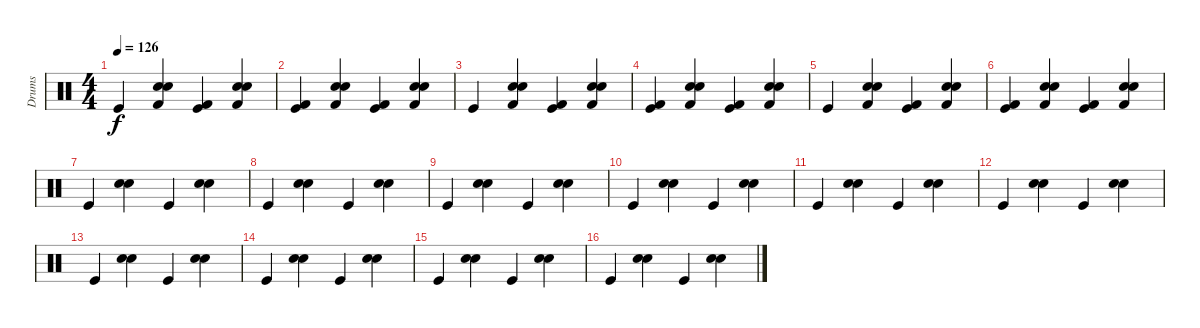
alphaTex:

\track ("Drums" "Drums") {instrument percussion}
\staff {score}
\articulation defaults
\ts (4 4)
\tempo 126
\clef neutral
\ks c "Kick (hit)".4{dy f}
("Snare (hit) 2" "Hand Clap (hit)" "Kick (hit) 2").4 ("Kick (hit)" "Kick (hit) 2").4 ("Snare (hit) 2" "Hand Clap (hit)" "Kick (hit) 2").4 |
("Kick (hit)" "Kick (hit) 2").4 ("Snare (hit) 2" "Hand Clap (hit)" "Kick (hit) 2").4 ("Kick (hit)" "Kick (hit) 2").4 ("Snare (hit) 2" "Hand Clap (hit)" "Kick (hit) 2").4 |
"Kick (hit)".4 ("Snare (hit) 2" "Hand Clap (hit)" "Kick (hit) 2").4 ("Kick (hit)" "Kick (hit) 2").4 ("Snare (hit) 2" "Hand Clap (hit)" "Kick (hit) 2").4 |
("Kick (hit)" "Kick (hit) 2").4 ("Snare (hit) 2" "Hand Clap (hit)" "Kick (hit) 2").4 ("Kick (hit)" "Kick (hit) 2").4 ("Snare (hit) 2" "Hand Clap (hit)" "Kick (hit) 2").4 |
"Kick (hit)".4 ("Snare (hit) 2" "Hand Clap (hit)" "Kick (hit) 2").4 ("Kick (hit)" "Kick (hit) 2").4 ("Snare (hit) 2" "Hand Clap (hit)" "Kick (hit) 2").4 |
("Kick (hit)" "Kick (hit) 2").4 ("Snare (hit) 2" "Hand Clap (hit)" "Kick (hit) 2").4 ("Kick (hit)" "Kick (hit) 2").4 ("Snare (hit) 2" "Hand Clap (hit)" "Kick (hit) 2").4 |
"Kick (hit)".4 ("Snare (hit) 2" "Hand Clap (hit)").4 "Kick (hit)".4 ("Snare (hit) 2" "Hand Clap (hit)").4 |
"Kick (hit)".4 ("Snare (hit) 2" "Hand Clap (hit)").4 "Kick (hit)".4 ("Snare (hit) 2" "Hand Clap (hit)").4 |
"Kick (hit)".4 ("Snare (hit) 2" "Hand Clap (hit)").4 "Kick (hit)".4 ("Snare (hit) 2" "Hand Clap (hit)").4 |
"Kick (hit)".4 ("Snare (hit) 2" "Hand Clap (hit)").4 "Kick (hit)".4 ("Snare (hit) 2" "Hand Clap (hit)").4 |
"Kick (hit)".4 ("Snare (hit) 2" "Hand Clap (hit)").4 "Kick (hit)".4 ("Snare (hit) 2" "Hand Clap (hit)").4 |
"Kick (hit)".4 ("Snare (hit) 2" "Hand Clap (hit)").4 "Kick (hit)".4 ("Snare (hit) 2" "Hand Clap (hit)").4 |
"Kick (hit)".4 ("Snare (hit) 2" "Hand Clap (hit)").4 "Kick (hit)".4 ("Snare (hit) 2" "Hand Clap (hit)").4 |
"Kick (hit)".4 ("Snare (hit) 2" "Hand Clap (hit)").4 "Kick (hit)".4 ("Snare (hit) 2" "Hand Clap (hit)").4 |
"Kick (hit)".4 ("Snare (hit) 2" "Hand Clap (hit)").4 "Kick (hit)".4 ("Snare (hit) 2" "Hand Clap (hit)").4 |
"Kick (hit)".4 ("Snare (hit) 2" "Hand Clap (hit)").4 "Kick (hit)".4 ("Snare (hit) 2" "Hand Clap (hit)").4
